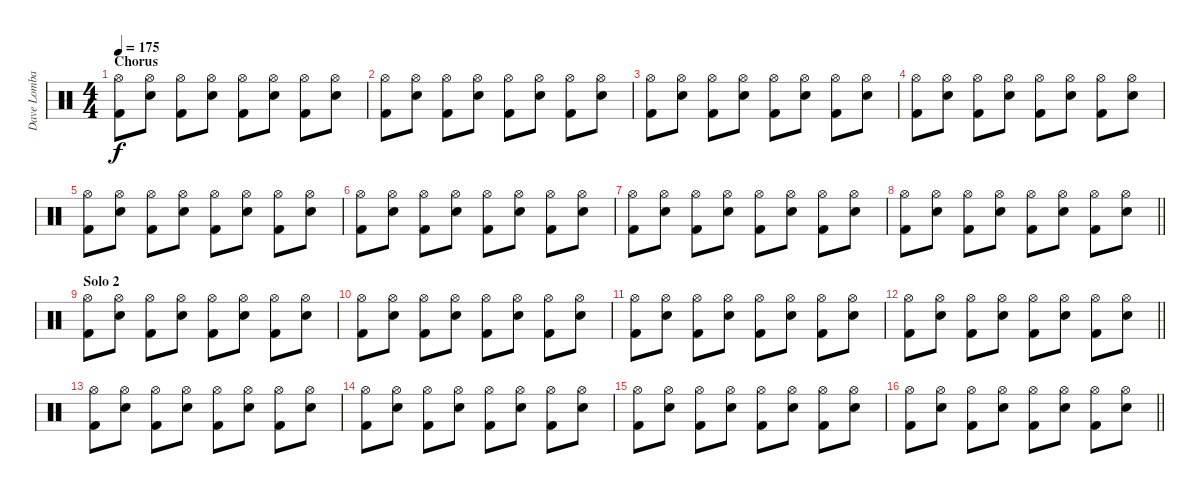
\track ("Dave Lombardo" "Dave Lomba") {instrument percussion}
\staff {score}
\articulation defaults
\ts (4 4)
\section ("" "Chorus")
\tempo 175
\clef neutral
\ks c
("Hi-Hat (open)" "Kick (hit) 2").8{dy f} ("Hi-Hat (open)" "Snare (hit) 2").8 ("Hi-Hat (open)" "Kick (hit) 2").8 ("Hi-Hat (open)" "Snare (hit) 2").8 ("Hi-Hat (open)" "Kick (hit) 2").8 ("Hi-Hat (open)" "Snare (hit) 2").8 ("Hi-Hat (open)" "Kick (hit) 2").8 ("Hi-Hat (open)" "Snare (hit) 2").8 |
("Hi-Hat (open)" "Kick (hit) 2").8 ("Hi-Hat (open)" "Snare (hit) 2").8 ("Hi-Hat (open)" "Kick (hit) 2").8 ("Hi-Hat (open)" "Snare (hit) 2").8 ("Hi-Hat (open)" "Kick (hit) 2").8 ("Hi-Hat (open)" "Snare (hit) 2").8 ("Hi-Hat (open)" "Kick (hit) 2").8 ("Hi-Hat (open)" "Snare (hit) 2").8 |
("Hi-Hat (open)" "Kick (hit) 2").8 ("Hi-Hat (open)" "Snare (hit) 2").8 ("Hi-Hat (open)" "Kick (hit) 2").8 ("Hi-Hat (open)" "Snare (hit) 2").8 ("Hi-Hat (open)" "Kick (hit) 2").8 ("Hi-Hat (open)" "Snare (hit) 2").8 ("Hi-Hat (open)" "Kick (hit) 2").8 ("Hi-Hat (open)" "Snare (hit) 2").8 |
("Hi-Hat (open)" "Kick (hit) 2").8 ("Hi-Hat (open)" "Snare (hit) 2").8 ("Hi-Hat (open)" "Kick (hit) 2").8 ("Hi-Hat (open)" "Snare (hit) 2").8 ("Hi-Hat (open)" "Kick (hit) 2").8 ("Hi-Hat (open)" "Snare (hit) 2").8 ("Hi-Hat (open)" "Kick (hit) 2").8 ("Hi-Hat (open)" "Snare (hit) 2").8 |
("Hi-Hat (open)" "Kick (hit) 2").8 ("Hi-Hat (open)" "Snare (hit) 2").8 ("Hi-Hat (open)" "Kick (hit) 2").8 ("Hi-Hat (open)" "Snare (hit) 2").8 ("Hi-Hat (open)" "Kick (hit) 2").8 ("Hi-Hat (open)" "Snare (hit) 2").8 ("Hi-Hat (open)" "Kick (hit) 2").8 ("Hi-Hat (open)" "Snare (hit) 2").8 |
("Hi-Hat (open)" "Kick (hit) 2").8 ("Hi-Hat (open)" "Snare (hit) 2").8 ("Hi-Hat (open)" "Kick (hit) 2").8 ("Hi-Hat (open)" "Snare (hit) 2").8 ("Hi-Hat (open)" "Kick (hit) 2").8 ("Hi-Hat (open)" "Snare (hit) 2").8 ("Hi-Hat (open)" "Kick (hit) 2").8 ("Hi-Hat (open)" "Snare (hit) 2").8 |
("Hi-Hat (open)" "Kick (hit) 2").8 ("Hi-Hat (open)" "Snare (hit) 2").8 ("Hi-Hat (open)" "Kick (hit) 2").8 ("Hi-Hat (open)" "Snare (hit) 2").8 ("Hi-Hat (open)" "Kick (hit) 2").8 ("Hi-Hat (open)" "Snare (hit) 2").8 ("Hi-Hat (open)" "Kick (hit) 2").8 ("Hi-Hat (open)" "Snare (hit) 2").8 |
\barLineRight lightlight
("Hi-Hat (open)" "Kick (hit) 2").8 ("Hi-Hat (open)" "Snare (hit) 2").8 ("Hi-Hat (open)" "Kick (hit) 2").8 ("Hi-Hat (open)" "Snare (hit) 2").8 ("Hi-Hat (open)" "Kick (hit) 2").8 ("Hi-Hat (open)" "Snare (hit) 2").8 ("Hi-Hat (open)" "Kick (hit) 2").8 ("Hi-Hat (open)" "Snare (hit) 2").8 |
\section ("" "Solo 2")
("Hi-Hat (open)" "Kick (hit) 2").8 ("Hi-Hat (open)" "Snare (hit) 2").8 ("Hi-Hat (open)" "Kick (hit) 2").8 ("Hi-Hat (open)" "Snare (hit) 2").8 ("Hi-Hat (open)" "Kick (hit) 2").8 ("Hi-Hat (open)" "Snare (hit) 2").8 ("Hi-Hat (open)" "Kick (hit) 2").8 ("Hi-Hat (open)" "Snare (hit) 2").8 |
("Hi-Hat (open)" "Kick (hit) 2").8 ("Hi-Hat (open)" "Snare (hit) 2").8 ("Hi-Hat (open)" "Kick (hit) 2").8 ("Hi-Hat (open)" "Snare (hit) 2").8 ("Hi-Hat (open)" "Kick (hit) 2").8 ("Hi-Hat (open)" "Snare (hit) 2").8 ("Hi-Hat (open)" "Kick (hit) 2").8 ("Hi-Hat (open)" "Snare (hit) 2").8 |
("Hi-Hat (open)" "Kick (hit) 2").8 ("Hi-Hat (open)" "Snare (hit) 2").8 ("Hi-Hat (open)" "Kick (hit) 2").8 ("Hi-Hat (open)" "Snare (hit) 2").8 ("Hi-Hat (open)" "Kick (hit) 2").8 ("Hi-Hat (open)" "Snare (hit) 2").8 ("Hi-Hat (open)" "Kick (hit) 2").8 ("Hi-Hat (open)" "Snare (hit) 2").8 |
\barLineRight lightlight
("Hi-Hat (open)" "Kick (hit) 2").8 ("Hi-Hat (open)" "Snare (hit) 2").8 ("Hi-Hat (open)" "Kick (hit) 2").8 ("Hi-Hat (open)" "Snare (hit) 2").8 ("Hi-Hat (open)" "Kick (hit) 2").8 ("Hi-Hat (open)" "Snare (hit) 2").8 ("Hi-Hat (open)" "Kick (hit) 2").8 ("Hi-Hat (open)" "Snare (hit) 2").8 |
("Hi-Hat (open)" "Kick (hit) 2").8 ("Hi-Hat (open)" "Snare (hit) 2").8 ("Hi-Hat (open)" "Kick (hit) 2").8 ("Hi-Hat (open)" "Snare (hit) 2").8 ("Hi-Hat (open)" "Kick (hit) 2").8 ("Hi-Hat (open)" "Snare (hit) 2").8 ("Hi-Hat (open)" "Kick (hit) 2").8 ("Hi-Hat (open)" "Snare (hit) 2").8 |
("Hi-Hat (open)" "Kick (hit) 2").8 ("Hi-Hat (open)" "Snare (hit) 2").8 ("Hi-Hat (open)" "Kick (hit) 2").8 ("Hi-Hat (open)" "Snare (hit) 2").8 ("Hi-Hat (open)" "Kick (hit) 2").8 ("Hi-Hat (open)" "Snare (hit) 2").8 ("Hi-Hat (open)" "Kick (hit) 2").8 ("Hi-Hat (open)" "Snare (hit) 2").8 |
("Hi-Hat (open)" "Kick (hit) 2").8 ("Hi-Hat (open)" "Snare (hit) 2").8 ("Hi-Hat (open)" "Kick (hit) 2").8 ("Hi-Hat (open)" "Snare (hit) 2").8 ("Hi-Hat (open)" "Kick (hit) 2").8 ("Hi-Hat (open)" "Snare (hit) 2").8 ("Hi-Hat (open)" "Kick (hit) 2").8 ("Hi-Hat (open)" "Snare (hit) 2").8 |
\barLineRight lightlight
("Hi-Hat (open)" "Kick (hit) 2").8 ("Hi-Hat (open)" "Snare (hit) 2").8 ("Hi-Hat (open)" "Kick (hit) 2").8 ("Hi-Hat (open)" "Snare (hit) 2").8 ("Hi-Hat (open)" "Kick (hit) 2").8 ("Hi-Hat (open)" "Snare (hit) 2").8 ("Hi-Hat (open)" "Kick (hit) 2").8 ("Hi-Hat (open)" "Snare (hit) 2").8
